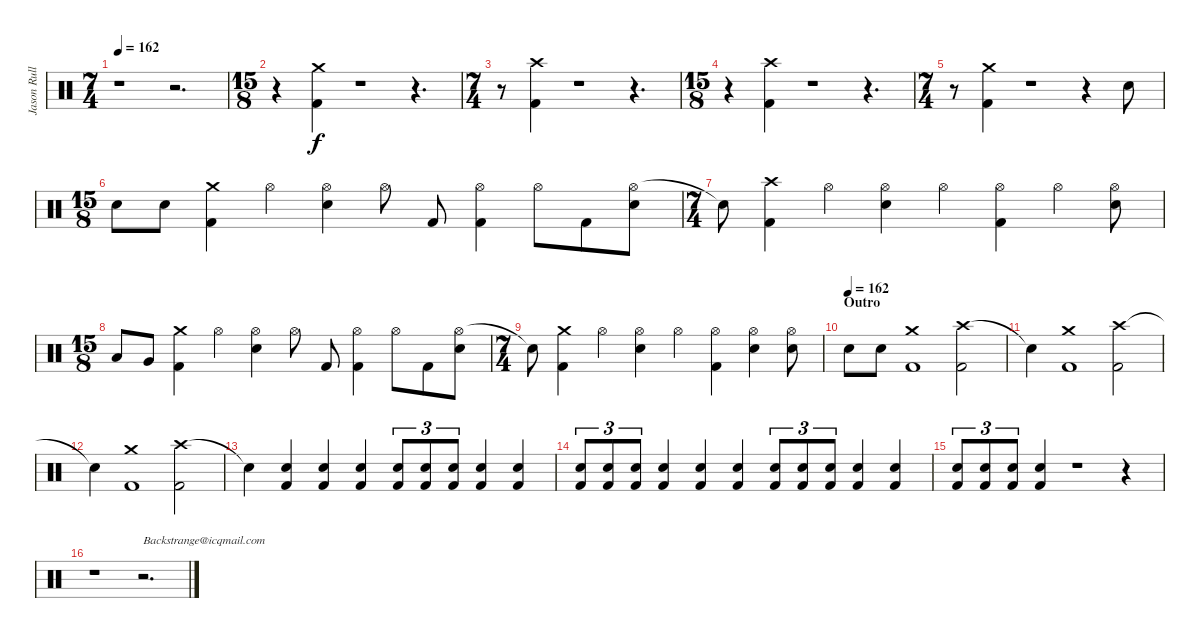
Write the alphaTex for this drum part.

\track ("Jason Rullo" "Jason Rull") {instrument percussion}
\staff {score}
\articulation defaults
\ts (7 4)
\tempo 162
\clef neutral
\ks c
r.1{dy f} r.2{d} |
\ts (15 8)
r.4 ("Crash medium (hit)" "Kick (hit) 2").4 r.1 r.4{d} |
\ts (7 4)
r.8 ("Crash high (hit)" "Kick (hit) 2").4 r.1 r.4{d} |
\ts (15 8)
r.4 ("Crash high (hit)" "Kick (hit) 2").4 r.1 r.4{d} |
\ts (7 4)
r.8 ("Crash medium (hit)" "Kick (hit) 2").4 r.1 r.4 "Electric Snare (hit)".8{volume 9} |
\ts (15 8)
"Electric Snare (hit)".8{volume 11} "Electric Snare (hit)".8{volume 14} ("Crash medium (hit)" "Kick (hit) 2").4{volume 16} "Hi-Hat (open)".4 ("Hi-Hat (open)" "Electric Snare (hit)").4 "Hi-Hat (open)".8 "Kick (hit) 2".8 ("Hi-Hat (open)" "Kick (hit) 2").4 "Hi-Hat (open)".8 "Kick (hit) 2".8 ("Hi-Hat (open)" "Electric Snare (hit)").8 |
\ts (7 4)
"Snare (hit)"{t}.8 ("Crash high (hit)" "Kick (hit) 2").4 "Hi-Hat (open)".4 ("Hi-Hat (open)" "Electric Snare (hit)").4 "Hi-Hat (open)".4 ("Hi-Hat (open)" "Kick (hit) 2").4 "Hi-Hat (open)".4 ("Hi-Hat (open)" "Electric Snare (hit)").8 |
\ts (15 8)
"Low Tom (hit)".8 "Very Low Tom (hit)".8 ("Crash medium (hit)" "Kick (hit) 2").4 "Hi-Hat (open)".4 ("Hi-Hat (open)" "Electric Snare (hit)").4 "Hi-Hat (open)".8 "Kick (hit) 2".8 ("Hi-Hat (open)" "Kick (hit) 2").4 "Hi-Hat (open)".8 "Kick (hit) 2".8 ("Hi-Hat (open)" "Electric Snare (hit)").8 |
\ts (7 4)
"Snare (hit)"{t}.8 ("Crash medium (hit)" "Kick (hit) 2").4 "Hi-Hat (open)".4 ("Hi-Hat (open)" "Electric Snare (hit)").4 "Hi-Hat (open)".4 ("Hi-Hat (open)" "Kick (hit) 2").4 ("Electric Snare (hit)" "Hi-Hat (open)").4 ("Hi-Hat (open)" "Electric Snare (hit)").8 |
\section ("" "Outro")
\tempo (162)
"Electric Snare (hit)".8 "Electric Snare (hit)".8 ("Crash medium (hit)" "Kick (hit) 2").1 ("Crash high (hit)" "Kick (hit) 2").2 |
"Snare (hit)"{t}.4 ("Crash medium (hit)" "Kick (hit) 2").1 ("Crash high (hit)" "Kick (hit) 2").2 |
"Snare (hit)"{t}.4 ("Crash medium (hit)" "Kick (hit) 2").1 ("Crash high (hit)" "Kick (hit) 2").2 |
"Snare (hit)"{t}.4 ("Kick (hit) 2" "Electric Snare (hit)").4 ("Kick (hit) 2" "Electric Snare (hit)").4 ("Kick (hit) 2" "Electric Snare (hit)").4 ("Kick (hit) 2" "Electric Snare (hit)").8{tu (3 2)} ("Kick (hit) 2" "Electric Snare (hit)").8{tu (3 2)} ("Kick (hit) 2" "Electric Snare (hit)").8{tu (3 2)} ("Kick (hit) 2" "Electric Snare (hit)").4 ("Kick (hit) 2" "Electric Snare (hit)").4 |
("Kick (hit) 2" "Electric Snare (hit)").8{tu (3 2)} ("Kick (hit) 2" "Electric Snare (hit)").8{tu (3 2)} ("Kick (hit) 2" "Electric Snare (hit)").8{tu (3 2)} ("Kick (hit) 2" "Electric Snare (hit)").4 ("Kick (hit) 2" "Electric Snare (hit)").4 ("Kick (hit) 2" "Electric Snare (hit)").4 ("Kick (hit) 2" "Electric Snare (hit)").8{tu (3 2)} ("Kick (hit) 2" "Electric Snare (hit)").8{tu (3 2)} ("Kick (hit) 2" "Electric Snare (hit)").8{tu (3 2)} ("Kick (hit) 2" "Electric Snare (hit)").4 ("Kick (hit) 2" "Electric Snare (hit)").4 |
("Kick (hit) 2" "Electric Snare (hit)").8{tu (3 2)} ("Kick (hit) 2" "Electric Snare (hit)").8{tu (3 2)} ("Kick (hit) 2" "Electric Snare (hit)").8{tu (3 2)} ("Kick (hit) 2" "Electric Snare (hit)").4 r.1 r.4 |
r.1 r.2{d txt "Backstrange@icqmail.com"}
